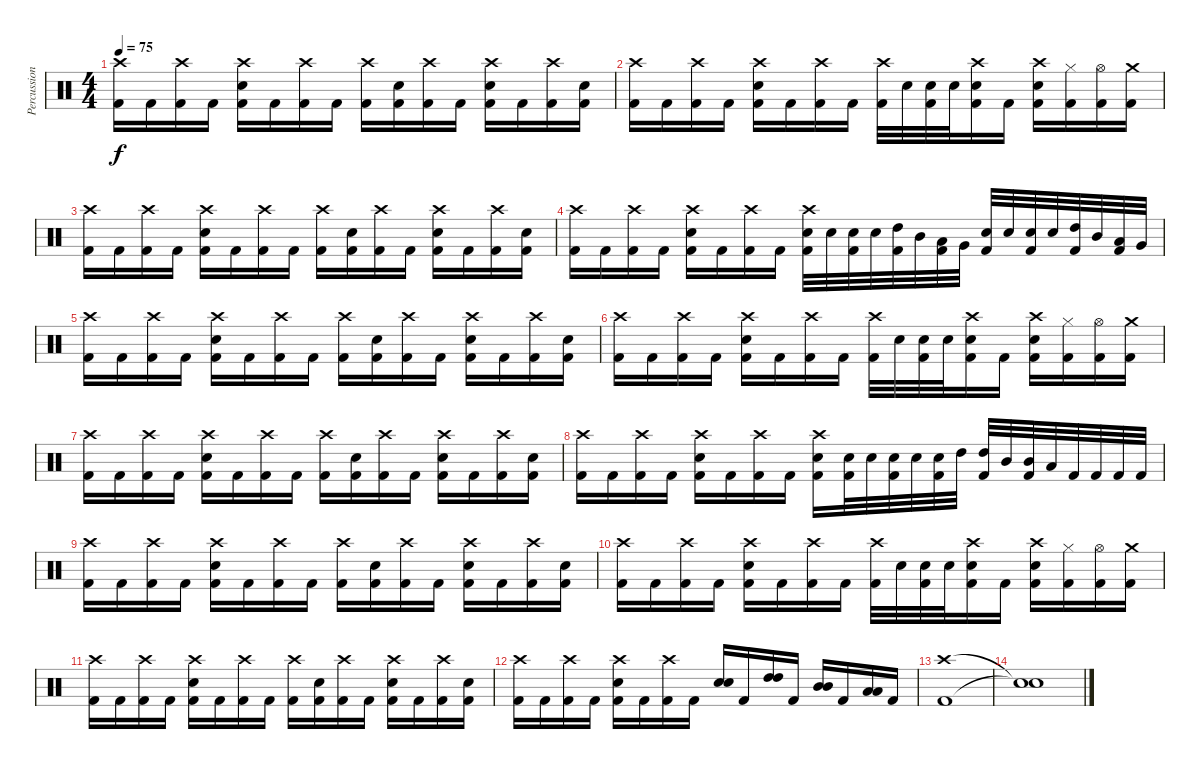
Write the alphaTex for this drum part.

\track ("Percussion" "Percussion") {instrument percussion}
\staff {score}
\articulation defaults
\ts (4 4)
\tempo 75
\clef neutral
\ks c
("Crash high (hit)" "Kick (hit) 2").16{dy f} "Kick (hit) 2".16 ("Crash high (hit)" "Kick (hit) 2").16 "Kick (hit) 2".16 ("Crash high (hit)" "Electric Snare (hit)" "Kick (hit) 2").16 "Kick (hit) 2".16 ("Crash high (hit)" "Kick (hit) 2").16 "Kick (hit) 2".16 ("Crash high (hit)" "Kick (hit) 2").16 ("Electric Snare (hit)" "Kick (hit) 2").16 ("Crash high (hit)" "Kick (hit) 2").16 "Kick (hit) 2".16 ("Crash high (hit)" "Electric Snare (hit)" "Kick (hit) 2").16 "Kick (hit) 2".16 ("Crash high (hit)" "Kick (hit) 2").16 ("Electric Snare (hit)" "Kick (hit) 2").16 |
("Crash high (hit)" "Kick (hit) 2").16 "Kick (hit) 2".16 ("Crash high (hit)" "Kick (hit) 2").16 "Kick (hit) 2".16 ("Crash high (hit)" "Electric Snare (hit)" "Kick (hit) 2").16 "Kick (hit) 2".16 ("Crash high (hit)" "Kick (hit) 2").16 "Kick (hit) 2".16 ("Crash high (hit)" "Kick (hit) 2").32 "Electric Snare (hit)".32 ("Electric Snare (hit)" "Kick (hit) 2").32 "Electric Snare (hit)".32 ("Crash high (hit)" "Electric Snare (hit)" "Kick (hit) 2").16 "Kick (hit) 2".16 ("Crash high (hit)" "Electric Snare (hit)" "Kick (hit) 2").16 ("Hi-Hat (closed)" "Kick (hit) 2").16 ("Hi-Hat (open)" "Kick (hit) 2").16 ("Crash medium (hit)" "Kick (hit) 2").16 |
("Crash high (hit)" "Kick (hit) 2").16 "Kick (hit) 2".16 ("Crash high (hit)" "Kick (hit) 2").16 "Kick (hit) 2".16 ("Crash high (hit)" "Electric Snare (hit)" "Kick (hit) 2").16 "Kick (hit) 2".16 ("Crash high (hit)" "Kick (hit) 2").16 "Kick (hit) 2".16 ("Crash high (hit)" "Kick (hit) 2").16 ("Electric Snare (hit)" "Kick (hit) 2").16 ("Crash high (hit)" "Kick (hit) 2").16 "Kick (hit) 2".16 ("Crash high (hit)" "Electric Snare (hit)" "Kick (hit) 2").16 "Kick (hit) 2".16 ("Crash high (hit)" "Kick (hit) 2").16 ("Electric Snare (hit)" "Kick (hit) 2").16 |
("Crash high (hit)" "Kick (hit) 2").16 "Kick (hit) 2".16 ("Crash high (hit)" "Kick (hit) 2").16 "Kick (hit) 2".16 ("Crash high (hit)" "Electric Snare (hit)" "Kick (hit) 2").16 "Kick (hit) 2".16 ("Crash high (hit)" "Kick (hit) 2").16 "Kick (hit) 2".16 ("Crash high (hit)" "Electric Snare (hit)" "Kick (hit) 2").32 "Electric Snare (hit)".32 ("Electric Snare (hit)" "Kick (hit) 2").32 "Electric Snare (hit)".32 ("High Tom (hit)" "Kick (hit) 2").32 "Mid Tom (hit)".32 ("Low Tom (hit)" "Kick (hit) 2").32 "Very Low Tom (hit)".32 ("Electric Snare (hit)" "Kick (hit) 2").32 "Electric Snare (hit)".32 ("Electric Snare (hit)" "Kick (hit) 2").32 "Electric Snare (hit)".32 ("High Tom (hit)" "Kick (hit) 2").32 "Mid Tom (hit)".32 ("Low Tom (hit)" "Kick (hit) 2").32 "Very Low Tom (hit)".32 |
("Crash high (hit)" "Kick (hit) 2").16 "Kick (hit) 2".16 ("Crash high (hit)" "Kick (hit) 2").16 "Kick (hit) 2".16 ("Crash high (hit)" "Electric Snare (hit)" "Kick (hit) 2").16 "Kick (hit) 2".16 ("Crash high (hit)" "Kick (hit) 2").16 "Kick (hit) 2".16 ("Crash high (hit)" "Kick (hit) 2").16 ("Electric Snare (hit)" "Kick (hit) 2").16 ("Crash high (hit)" "Kick (hit) 2").16 "Kick (hit) 2".16 ("Crash high (hit)" "Electric Snare (hit)" "Kick (hit) 2").16 "Kick (hit) 2".16 ("Crash high (hit)" "Kick (hit) 2").16 ("Electric Snare (hit)" "Kick (hit) 2").16 |
("Crash high (hit)" "Kick (hit) 2").16 "Kick (hit) 2".16 ("Crash high (hit)" "Kick (hit) 2").16 "Kick (hit) 2".16 ("Crash high (hit)" "Electric Snare (hit)" "Kick (hit) 2").16 "Kick (hit) 2".16 ("Crash high (hit)" "Kick (hit) 2").16 "Kick (hit) 2".16 ("Crash high (hit)" "Kick (hit) 2").32 "Electric Snare (hit)".32 ("Electric Snare (hit)" "Kick (hit) 2").32 "Electric Snare (hit)".32 ("Crash high (hit)" "Electric Snare (hit)" "Kick (hit) 2").16 "Kick (hit) 2".16 ("Crash high (hit)" "Electric Snare (hit)" "Kick (hit) 2").16 ("Hi-Hat (closed)" "Kick (hit) 2").16 ("Hi-Hat (open)" "Kick (hit) 2").16 ("Crash medium (hit)" "Kick (hit) 2").16 |
("Crash high (hit)" "Kick (hit) 2").16 "Kick (hit) 2".16 ("Crash high (hit)" "Kick (hit) 2").16 "Kick (hit) 2".16 ("Crash high (hit)" "Electric Snare (hit)" "Kick (hit) 2").16 "Kick (hit) 2".16 ("Crash high (hit)" "Kick (hit) 2").16 "Kick (hit) 2".16 ("Crash high (hit)" "Kick (hit) 2").16 ("Electric Snare (hit)" "Kick (hit) 2").16 ("Crash high (hit)" "Kick (hit) 2").16 "Kick (hit) 2".16 ("Crash high (hit)" "Electric Snare (hit)" "Kick (hit) 2").16 "Kick (hit) 2".16 ("Crash high (hit)" "Kick (hit) 2").16 ("Electric Snare (hit)" "Kick (hit) 2").16 |
("Crash high (hit)" "Kick (hit) 2").16 "Kick (hit) 2".16 ("Crash high (hit)" "Kick (hit) 2").16 "Kick (hit) 2".16 ("Crash high (hit)" "Electric Snare (hit)" "Kick (hit) 2").16 "Kick (hit) 2".16 ("Crash high (hit)" "Kick (hit) 2").16 "Kick (hit) 2".16 ("Crash high (hit)" "Electric Snare (hit)" "Kick (hit) 2").16 ("Electric Snare (hit)" "Kick (hit) 2").32 "Electric Snare (hit)".32 ("Electric Snare (hit)" "Kick (hit) 2").32 "Electric Snare (hit)".32 ("Electric Snare (hit)" "Kick (hit) 2").32 "High Tom (hit)".32 ("High Tom (hit)" "Kick (hit) 2").32 "Mid Tom (hit)".32 ("Mid Tom (hit)" "Kick (hit) 2").32 "Low Tom (hit)".32 "Kick (hit) 2".32 "Kick (hit) 2".32 "Kick (hit) 2".32 "Kick (hit) 2".32 |
("Crash high (hit)" "Kick (hit) 2").16 "Kick (hit) 2".16 ("Crash high (hit)" "Kick (hit) 2").16 "Kick (hit) 2".16 ("Crash high (hit)" "Electric Snare (hit)" "Kick (hit) 2").16 "Kick (hit) 2".16 ("Crash high (hit)" "Kick (hit) 2").16 "Kick (hit) 2".16 ("Crash high (hit)" "Kick (hit) 2").16 ("Electric Snare (hit)" "Kick (hit) 2").16 ("Crash high (hit)" "Kick (hit) 2").16 "Kick (hit) 2".16 ("Crash high (hit)" "Electric Snare (hit)" "Kick (hit) 2").16 "Kick (hit) 2".16 ("Crash high (hit)" "Kick (hit) 2").16 ("Electric Snare (hit)" "Kick (hit) 2").16 |
("Crash high (hit)" "Kick (hit) 2").16 "Kick (hit) 2".16 ("Crash high (hit)" "Kick (hit) 2").16 "Kick (hit) 2".16 ("Crash high (hit)" "Electric Snare (hit)" "Kick (hit) 2").16 "Kick (hit) 2".16 ("Crash high (hit)" "Kick (hit) 2").16 "Kick (hit) 2".16 ("Crash high (hit)" "Kick (hit) 2").32 "Electric Snare (hit)".32 ("Electric Snare (hit)" "Kick (hit) 2").32 "Electric Snare (hit)".32 ("Crash high (hit)" "Electric Snare (hit)" "Kick (hit) 2").16 "Kick (hit) 2".16 ("Crash high (hit)" "Electric Snare (hit)" "Kick (hit) 2").16 ("Hi-Hat (closed)" "Kick (hit) 2").16 ("Hi-Hat (open)" "Kick (hit) 2").16 ("Crash medium (hit)" "Kick (hit) 2").16 |
("Crash high (hit)" "Kick (hit) 2").16 "Kick (hit) 2".16 ("Crash high (hit)" "Kick (hit) 2").16 "Kick (hit) 2".16 ("Crash high (hit)" "Electric Snare (hit)" "Kick (hit) 2").16 "Kick (hit) 2".16 ("Crash high (hit)" "Kick (hit) 2").16 "Kick (hit) 2".16 ("Crash high (hit)" "Kick (hit) 2").16 ("Electric Snare (hit)" "Kick (hit) 2").16 ("Crash high (hit)" "Kick (hit) 2").16 "Kick (hit) 2".16 ("Crash high (hit)" "Electric Snare (hit)" "Kick (hit) 2").16 "Kick (hit) 2".16 ("Crash high (hit)" "Kick (hit) 2").16 ("Electric Snare (hit)" "Kick (hit) 2").16 |
("Crash high (hit)" "Kick (hit) 2").16 "Kick (hit) 2".16 ("Crash high (hit)" "Kick (hit) 2").16 "Kick (hit) 2".16 ("Crash high (hit)" "Electric Snare (hit)" "Kick (hit) 2").16 "Kick (hit) 2".16 ("Crash high (hit)" "Kick (hit) 2").16 "Kick (hit) 2".16 ("Electric Snare (hit)" "Electric Snare (hit)").16{bu 480} "Kick (hit) 2".16 ("High Tom (hit)" "High Tom (hit)").16{bu 480} "Kick (hit) 2".16 ("Mid Tom (hit)" "Mid Tom (hit)").16{bu 480} "Kick (hit) 2".16 ("Low Tom (hit)" "Low Tom (hit)").16{bu 480} "Kick (hit) 2".16 |
("Crash high (hit)" "Kick (hit) 2").1 |
("Snare (hit)"{t} "Snare (hit)"{t}).1
